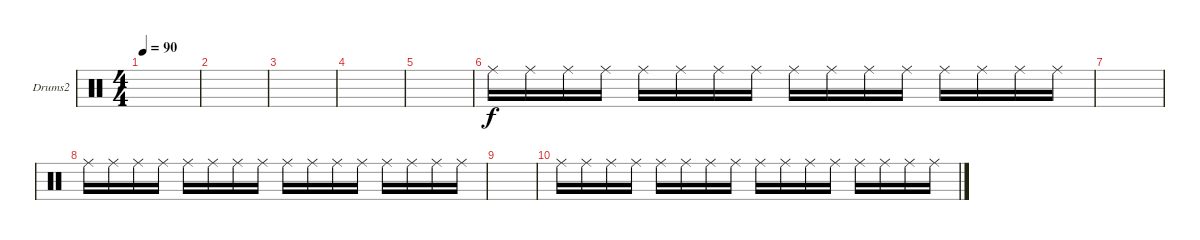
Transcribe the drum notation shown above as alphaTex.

\defaultSystemsLayout 4
\bracketExtendMode groupsimilarinstruments
\firstSystemTrackNameOrientation horizontal
\otherSystemsTrackNameOrientation horizontal
\track ("Drums2" "Drums2") {instrument percussion}
\staff {score}
\articulation defaults
\ts (4 4)
\tempo 90
\clef neutral
\scale
0.333333
\ks c
|
\scale
0.333333 |
\scale
0.333333 |
\scale
0.333333 |
\scale
0.333333 |
\scale
0.333333 "Ride (middle)".16 "Ride (middle)".16 "Ride (middle)".16 "Ride (middle)".16 "Ride (middle)".16 "Ride (middle)".16 "Ride (middle)".16 "Ride (middle)".16 "Ride (middle)".16 "Ride (middle)".16 "Ride (middle)".16 "Ride (middle)".16 "Ride (middle)".16 "Ride (middle)".16 "Ride (middle)".16 "Ride (middle)".16 |
\scale
0.333333 |
\scale
0.333333 "Ride (middle)".16 "Ride (middle)".16 "Ride (middle)".16 "Ride (middle)".16 "Ride (middle)".16 "Ride (middle)".16 "Ride (middle)".16 "Ride (middle)".16 "Ride (middle)".16 "Ride (middle)".16 "Ride (middle)".16 "Ride (middle)".16 "Ride (middle)".16 "Ride (middle)".16 "Ride (middle)".16 "Ride (middle)".16 |
\scale
0.333333 |
\scale
0.333333 "Ride (middle)".16 "Ride (middle)".16 "Ride (middle)".16 "Ride (middle)".16 "Ride (middle)".16 "Ride (middle)".16 "Ride (middle)".16 "Ride (middle)".16 "Ride (middle)".16 "Ride (middle)".16 "Ride (middle)".16 "Ride (middle)".16 "Ride (middle)".16 "Ride (middle)".16 "Ride (middle)".16 "Ride (middle)".16 |
\scale
0.333333
